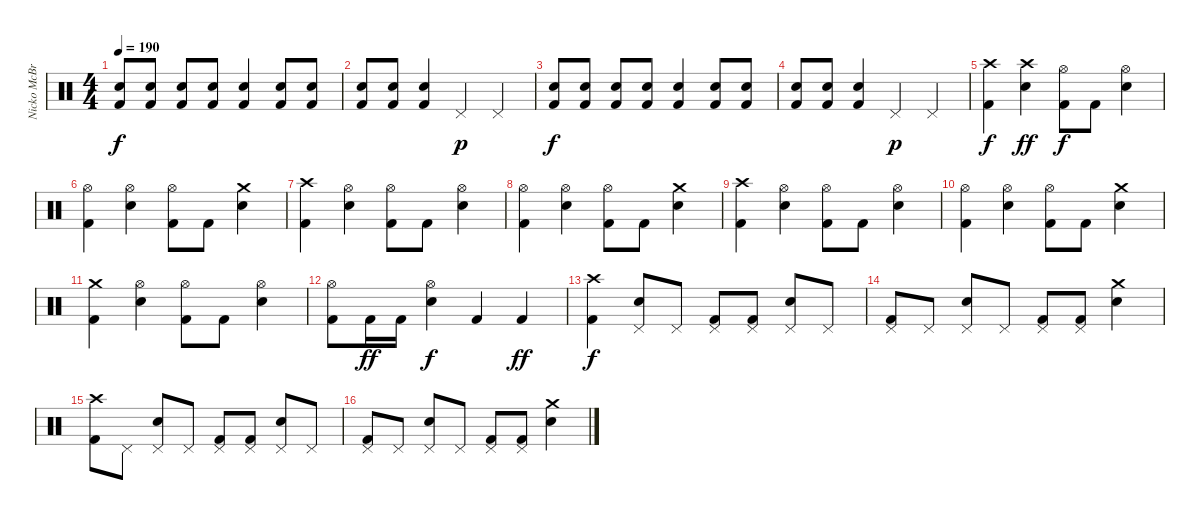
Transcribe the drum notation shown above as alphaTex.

\track ("Nicko McBrain" "Nicko McBr") {instrument percussion}
\staff {score}
\articulation defaults
\ts (4 4)
\tempo 190
\clef neutral
\ks c
("Electric Snare (hit)" "Kick (hit) 2").8{dy f} ("Electric Snare (hit)" "Kick (hit) 2").8 ("Electric Snare (hit)" "Kick (hit) 2").8 ("Electric Snare (hit)" "Kick (hit) 2").8 ("Electric Snare (hit)" "Kick (hit) 2").4 ("Electric Snare (hit)" "Kick (hit) 2").8 ("Electric Snare (hit)" "Kick (hit) 2").8 |
("Electric Snare (hit)" "Kick (hit) 2").8 ("Electric Snare (hit)" "Kick (hit) 2").8 ("Electric Snare (hit)" "Kick (hit) 2").4 "Pedal Hi-Hat (hit)".4{dy p} "Pedal Hi-Hat (hit)".4 |
("Electric Snare (hit)" "Kick (hit) 2").8{dy f} ("Electric Snare (hit)" "Kick (hit) 2").8 ("Electric Snare (hit)" "Kick (hit) 2").8 ("Electric Snare (hit)" "Kick (hit) 2").8 ("Electric Snare (hit)" "Kick (hit) 2").4 ("Electric Snare (hit)" "Kick (hit) 2").8 ("Electric Snare (hit)" "Kick (hit) 2").8 |
("Electric Snare (hit)" "Kick (hit) 2").8 ("Electric Snare (hit)" "Kick (hit) 2").8 ("Electric Snare (hit)" "Kick (hit) 2").4 "Pedal Hi-Hat (hit)".4{dy p} "Pedal Hi-Hat (hit)".4 |
("Crash high (hit)" "Kick (hit) 2").4{dy f} ("Crash high (hit)" "Electric Snare (hit)").4{dy ff} ("Hi-Hat (open)" "Kick (hit) 2").8{dy f} "Kick (hit) 2".8 ("Hi-Hat (open)" "Electric Snare (hit)").4 |
("Hi-Hat (open)" "Kick (hit) 2").4 ("Hi-Hat (open)" "Electric Snare (hit)").4 ("Hi-Hat (open)" "Kick (hit) 2").8 "Kick (hit) 2".8 ("Crash medium (hit)" "Electric Snare (hit)").4 |
("Crash high (hit)" "Kick (hit) 2").4 ("Hi-Hat (open)" "Electric Snare (hit)").4 ("Hi-Hat (open)" "Kick (hit) 2").8 "Kick (hit) 2".8 ("Hi-Hat (open)" "Electric Snare (hit)").4 |
("Hi-Hat (open)" "Kick (hit) 2").4 ("Hi-Hat (open)" "Electric Snare (hit)").4 ("Hi-Hat (open)" "Kick (hit) 2").8 "Kick (hit) 2".8 ("Crash medium (hit)" "Electric Snare (hit)").4 |
("Crash high (hit)" "Kick (hit) 2").4 ("Hi-Hat (open)" "Electric Snare (hit)").4 ("Hi-Hat (open)" "Kick (hit) 2").8 "Kick (hit) 2".8 ("Hi-Hat (open)" "Electric Snare (hit)").4 |
("Hi-Hat (open)" "Kick (hit) 2").4 ("Hi-Hat (open)" "Electric Snare (hit)").4 ("Hi-Hat (open)" "Kick (hit) 2").8 "Kick (hit) 2".8 ("Crash medium (hit)" "Electric Snare (hit)").4 |
("Crash medium (hit)" "Kick (hit) 2").4 ("Hi-Hat (open)" "Electric Snare (hit)").4 ("Hi-Hat (open)" "Kick (hit) 2").8 "Kick (hit) 2".8 ("Hi-Hat (open)" "Electric Snare (hit)").4 |
("Hi-Hat (open)" "Kick (hit) 2").8 "Kick (hit) 2".16{dy ff} "Kick (hit) 2".16 ("Hi-Hat (open)" "Electric Snare (hit)").4{dy f} "Kick (hit) 2".4 "Kick (hit) 2".4{dy ff} |
("Crash high (hit)" "Kick (hit) 2").4{dy f} ("Pedal Hi-Hat (hit)" "Electric Snare (hit)").8 "Pedal Hi-Hat (hit)".8 ("Pedal Hi-Hat (hit)" "Kick (hit) 2").8 ("Pedal Hi-Hat (hit)" "Kick (hit) 2").8 ("Pedal Hi-Hat (hit)" "Electric Snare (hit)").8 "Pedal Hi-Hat (hit)".8 |
("Pedal Hi-Hat (hit)" "Kick (hit) 2").8 "Pedal Hi-Hat (hit)".8 ("Pedal Hi-Hat (hit)" "Electric Snare (hit)").8 "Pedal Hi-Hat (hit)".8 ("Pedal Hi-Hat (hit)" "Kick (hit) 2").8 ("Pedal Hi-Hat (hit)" "Kick (hit) 2").8 ("Crash medium (hit)" "Electric Snare (hit)").4 |
("Crash high (hit)" "Kick (hit) 2").8 "Pedal Hi-Hat (hit)".8 ("Pedal Hi-Hat (hit)" "Electric Snare (hit)").8 "Pedal Hi-Hat (hit)".8 ("Pedal Hi-Hat (hit)" "Kick (hit) 2").8 ("Pedal Hi-Hat (hit)" "Kick (hit) 2").8 ("Pedal Hi-Hat (hit)" "Electric Snare (hit)").8 "Pedal Hi-Hat (hit)".8 |
("Pedal Hi-Hat (hit)" "Kick (hit) 2").8 "Pedal Hi-Hat (hit)".8 ("Pedal Hi-Hat (hit)" "Electric Snare (hit)").8 "Pedal Hi-Hat (hit)".8 ("Pedal Hi-Hat (hit)" "Kick (hit) 2").8 ("Pedal Hi-Hat (hit)" "Kick (hit) 2").8 ("Crash medium (hit)" "Electric Snare (hit)").4
